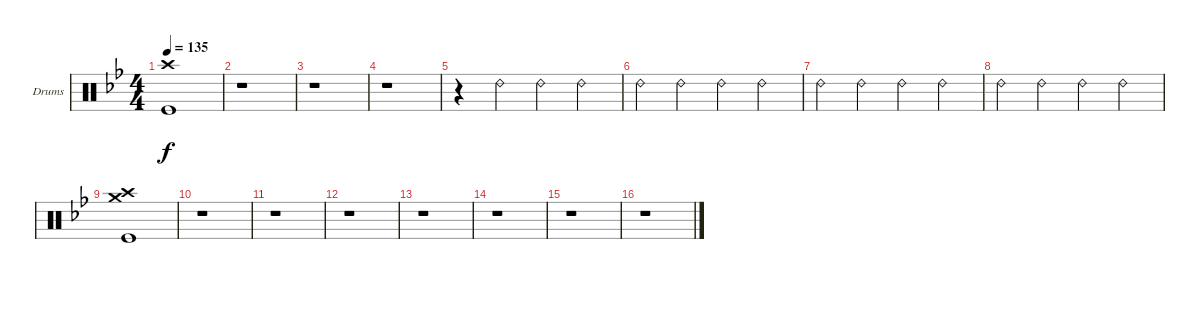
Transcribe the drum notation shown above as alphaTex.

\bracketExtendMode groupsimilarinstruments
\firstSystemTrackNameOrientation horizontal
\otherSystemsTrackNameOrientation horizontal
\track ("Drumkit" "Drums") {instrument percussion}
\staff {score}
\articulation defaults
\ts (4 4)
\tempo 135
\clef neutral
\ks gminor
("Crash high (hit)" "Kick (hit)").1{dy f} |
r.1 |
r.1 |
r.1 |
r.4 "Ride (bell) 2".4 "Ride (bell) 2".4 "Ride (bell) 2".4 |
"Ride (bell) 2".4 "Ride (bell) 2".4 "Ride (bell) 2".4 "Ride (bell) 2".4 |
"Ride (bell) 2".4 "Ride (bell) 2".4 "Ride (bell) 2".4 "Ride (bell) 2".4 |
"Ride (bell) 2".4 "Ride (bell) 2".4 "Ride (bell) 2".4 "Ride (bell) 2".4 |
("Crash high (hit)" "Crash medium (hit)" "Kick (hit)").1 |
r.1 |
r.1 |
r.1 |
r.1 |
r.1 |
r.1 |
r.1
